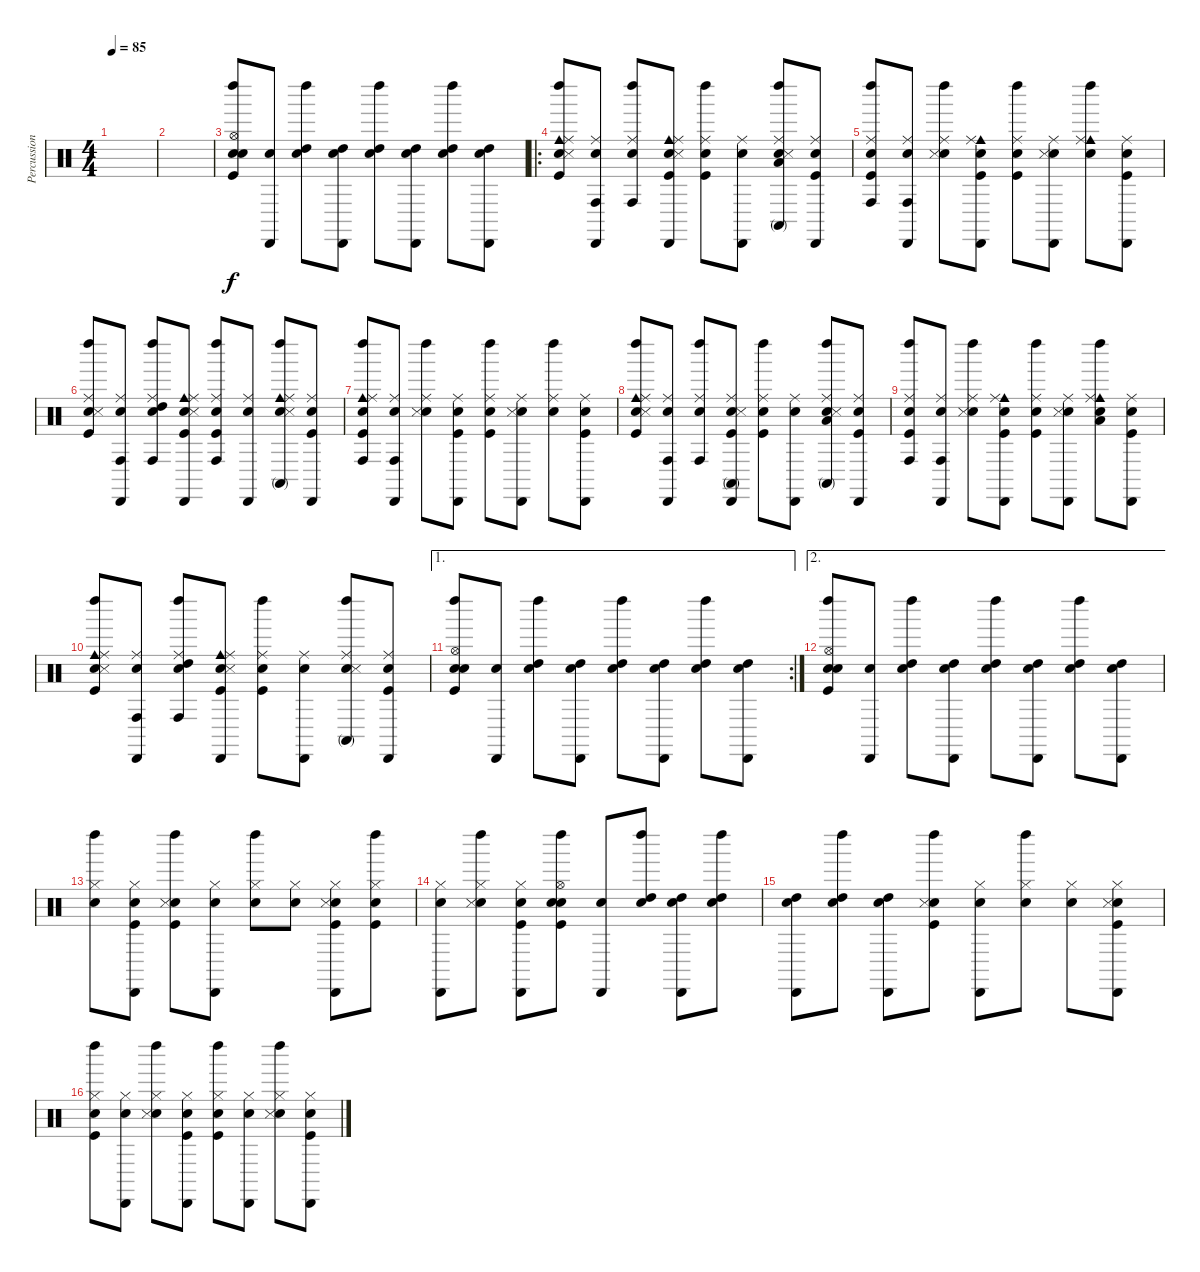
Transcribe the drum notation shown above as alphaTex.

\track ("Percussions" "Percussion") {instrument percussion}
\staff {score}
\articulation defaults
\ts (4 4)
\tempo 85
\clef neutral
\ks c
|
|
("Snare (hit)" "Kick (hit)" "Snare (hit) 2" "Hi-Hat (open)" "Left Maraca (hit)").8 ("Snare (hit)" "Cabasa (hit)").8 ("Snare (hit)" "High Tom (hit)" "Left Maraca (hit)").8 ("Snare (hit)" "High Tom (hit)" "Cabasa (hit)").8 ("Snare (hit)" "High Tom (hit)" "Left Maraca (hit)").8 ("Snare (hit)" "High Tom (hit)" "Cabasa (hit)").8 ("Snare (hit)" "High Tom (hit)" "Left Maraca (hit)").8 ("Snare (hit)" "High Tom (hit)" "Cabasa (hit)").8 |
\ro
("Snare (hit)" "Kick (hit)" "Snare (side stick) 3" "Cowbell medium (hit)" "Ride (middle)" "Left Maraca (hit)").8 ("Snare (hit)" "Ride (middle)" "Conga high (hit)" "Cabasa (hit)").8 ("Snare (hit)" "Ride (middle)" "Conga high (hit)" "Left Maraca (hit)").8 ("Snare (hit)" "Kick (hit)" "Snare (side stick) 3" "Cowbell medium (hit)" "Ride (middle)" "Cabasa (hit)").8 ("Snare (hit)" "Kick (hit)" "Ride (middle)" "Left Maraca (hit)").8 ("Snare (hit)" "Ride (middle)" "Cabasa (hit)").8 ("Snare (hit)" "Snare (side stick) 3" "Ride (middle)" "Low Tom (hit)" "Conga high (mute)" "Left Maraca (hit)").8 ("Snare (hit)" "Kick (hit)" "Ride (middle)" "Cabasa (hit)").8 |
("Snare (hit)" "Kick (hit)" "Ride (middle)" "Conga high (hit)" "Left Maraca (hit)").8 ("Snare (hit)" "Ride (middle)" "Conga high (hit)" "Cabasa (hit)").8 ("Snare (hit)" "Snare (side stick) 3" "Ride (middle)" "Left Maraca (hit)").8 ("Snare (hit)" "Kick (hit)" "Cowbell medium (hit)" "Ride (middle)" "Cabasa (hit)").8 ("Snare (hit)" "Kick (hit)" "Ride (middle)" "Left Maraca (hit)").8 ("Snare (hit)" "Snare (side stick) 3" "Ride (middle)" "Cabasa (hit)").8 ("Snare (hit)" "Cowbell medium (hit)" "Ride (middle)" "Left Maraca (hit)").8 ("Snare (hit)" "Kick (hit)" "Ride (middle)" "Cabasa (hit)").8 |
("Snare (hit)" "Kick (hit)" "Snare (side stick) 3" "Ride (middle)" "Left Maraca (hit)").8 ("Snare (hit)" "Ride (middle)" "Conga high (hit)" "Cabasa (hit)").8 ("Snare (hit)" "Ride (middle)" "High Tom (hit)" "Conga high (hit)" "Left Maraca (hit)").8 ("Snare (hit)" "Kick (hit)" "Snare (side stick) 3" "Cowbell medium (hit)" "Ride (middle)" "Cabasa (hit)").8 ("Snare (hit)" "Kick (hit)" "Ride (middle)" "Conga high (hit)" "Left Maraca (hit)").8 ("Snare (hit)" "Ride (middle)" "Cabasa (hit)").8 ("Snare (hit)" "Snare (side stick) 3" "Cowbell medium (hit)" "Ride (middle)" "Conga high (mute)" "Left Maraca (hit)").8 ("Snare (hit)" "Kick (hit)" "Ride (middle)" "Cabasa (hit)").8 |
("Snare (hit)" "Kick (hit)" "Cowbell medium (hit)" "Ride (middle)" "Conga high (hit)" "Left Maraca (hit)").8 ("Snare (hit)" "Ride (middle)" "Conga high (hit)" "Cabasa (hit)").8 ("Snare (hit)" "Snare (side stick) 3" "Ride (middle)" "Left Maraca (hit)").8 ("Snare (hit)" "Kick (hit)" "Ride (middle)" "Cabasa (hit)").8 ("Snare (hit)" "Kick (hit)" "Ride (middle)" "Left Maraca (hit)").8 ("Snare (hit)" "Snare (side stick) 3" "Ride (middle)" "Cabasa (hit)").8 ("Snare (hit)" "Ride (middle)" "Left Maraca (hit)").8 ("Snare (hit)" "Kick (hit)" "Ride (middle)" "Cabasa (hit)").8 |
("Snare (hit)" "Kick (hit)" "Snare (side stick) 3" "Cowbell medium (hit)" "Ride (middle)" "Left Maraca (hit)").8 ("Snare (hit)" "Ride (middle)" "Conga high (hit)" "Cabasa (hit)").8 ("Snare (hit)" "Ride (middle)" "Conga high (hit)" "Left Maraca (hit)").8 ("Snare (hit)" "Kick (hit)" "Snare (side stick) 3" "Ride (middle)" "Conga high (mute)" "Cabasa (hit)").8 ("Snare (hit)" "Kick (hit)" "Ride (middle)" "Left Maraca (hit)").8 ("Snare (hit)" "Ride (middle)" "Cabasa (hit)").8 ("Snare (hit)" "Snare (side stick) 3" "Ride (middle)" "Low Tom (hit)" "Conga high (mute)" "Left Maraca (hit)").8 ("Snare (hit)" "Kick (hit)" "Ride (middle)" "Cabasa (hit)").8 |
("Snare (hit)" "Kick (hit)" "Ride (middle)" "Conga high (hit)" "Left Maraca (hit)").8 ("Snare (hit)" "Ride (middle)" "Conga high (hit)" "Cabasa (hit)").8 ("Snare (hit)" "Snare (side stick) 3" "Ride (middle)" "Left Maraca (hit)").8 ("Snare (hit)" "Kick (hit)" "Cowbell medium (hit)" "Ride (middle)" "Cabasa (hit)").8 ("Snare (hit)" "Kick (hit)" "Ride (middle)" "Left Maraca (hit)").8 ("Snare (hit)" "Snare (side stick) 3" "Ride (middle)" "Cabasa (hit)").8 ("Snare (hit)" "Cowbell medium (hit)" "Ride (middle)" "Low Tom (hit)" "Left Maraca (hit)").8 ("Snare (hit)" "Kick (hit)" "Ride (middle)" "Cabasa (hit)").8 |
("Snare (hit)" "Kick (hit)" "Snare (side stick) 3" "Cowbell medium (hit)" "Ride (middle)" "Left Maraca (hit)").8 ("Snare (hit)" "Ride (middle)" "Conga high (hit)" "Cabasa (hit)").8 ("Snare (hit)" "Ride (middle)" "High Tom (hit)" "Conga high (hit)" "Left Maraca (hit)").8 ("Snare (hit)" "Kick (hit)" "Snare (side stick) 3" "Cowbell medium (hit)" "Ride (middle)" "Cabasa (hit)").8 ("Snare (hit)" "Kick (hit)" "Ride (middle)" "Left Maraca (hit)").8 ("Snare (hit)" "Ride (middle)" "Cabasa (hit)").8 ("Snare (hit)" "Snare (side stick) 3" "Ride (middle)" "Conga high (mute)" "Left Maraca (hit)").8 ("Snare (hit)" "Kick (hit)" "Ride (middle)" "Cabasa (hit)").8 |
\ae 1
\rc 2
("Snare (hit)" "Kick (hit)" "Snare (hit) 2" "Hi-Hat (open)" "Left Maraca (hit)").8 ("Snare (hit)" "Cabasa (hit)").8 ("Snare (hit)" "High Tom (hit)" "Left Maraca (hit)").8 ("Snare (hit)" "High Tom (hit)" "Cabasa (hit)").8 ("Snare (hit)" "High Tom (hit)" "Left Maraca (hit)").8 ("Snare (hit)" "High Tom (hit)" "Cabasa (hit)").8 ("Snare (hit)" "High Tom (hit)" "Left Maraca (hit)").8 ("Snare (hit)" "High Tom (hit)" "Cabasa (hit)").8 |
\ae 2
("Snare (hit)" "Kick (hit)" "Snare (hit) 2" "Hi-Hat (open)" "Left Maraca (hit)").8 ("Snare (hit)" "Cabasa (hit)").8 ("Snare (hit)" "High Tom (hit)" "Left Maraca (hit)").8 ("Snare (hit)" "High Tom (hit)" "Cabasa (hit)").8 ("Snare (hit)" "High Tom (hit)" "Left Maraca (hit)").8 ("Snare (hit)" "High Tom (hit)" "Cabasa (hit)").8 ("Snare (hit)" "High Tom (hit)" "Left Maraca (hit)").8 ("Snare (hit)" "High Tom (hit)" "Cabasa (hit)").8 |
("Snare (hit)" "Hi-Hat (closed)" "Left Maraca (hit)").8 ("Snare (hit)" "Kick (hit)" "Hi-Hat (closed)" "Cabasa (hit)").8 ("Snare (hit)" "Kick (hit)" "Snare (side stick) 3" "Left Maraca (hit)").8 ("Snare (hit)" "Hi-Hat (closed)" "Cabasa (hit)").8 ("Snare (hit)" "Hi-Hat (closed)" "Left Maraca (hit)").8 ("Snare (hit)" "Hi-Hat (closed)").8 ("Snare (hit)" "Kick (hit)" "Hi-Hat (closed)" "Snare (side stick) 3" "Cabasa (hit)").8 ("Snare (hit)" "Kick (hit)" "Hi-Hat (closed)" "Left Maraca (hit)").8 |
("Snare (hit)" "Hi-Hat (closed)" "Cabasa (hit)").8 ("Snare (hit)" "Hi-Hat (closed)" "Snare (side stick) 3" "Left Maraca (hit)").8 ("Snare (hit)" "Kick (hit)" "Hi-Hat (closed)" "Cabasa (hit)").8 ("Snare (hit)" "Kick (hit)" "Snare (hit) 2" "Hi-Hat (open)" "Left Maraca (hit)").8 ("Snare (hit)" "Cabasa (hit)").8 ("Snare (hit)" "High Tom (hit)" "Left Maraca (hit)").8 ("Snare (hit)" "High Tom (hit)" "Cabasa (hit)").8 ("Snare (hit)" "High Tom (hit)" "Left Maraca (hit)").8 |
("Snare (hit)" "High Tom (hit)" "Cabasa (hit)").8 ("Snare (hit)" "High Tom (hit)" "Left Maraca (hit)").8 ("Snare (hit)" "High Tom (hit)" "Cabasa (hit)").8 ("Snare (hit)" "Kick (hit)" "Snare (side stick) 3" "Left Maraca (hit)").8 ("Snare (hit)" "Hi-Hat (closed)" "Cabasa (hit)").8 ("Snare (hit)" "Hi-Hat (closed)" "Left Maraca (hit)").8 ("Snare (hit)" "Hi-Hat (closed)").8 ("Snare (hit)" "Kick (hit)" "Hi-Hat (closed)" "Snare (side stick) 3" "Cabasa (hit)").8 |
("Snare (hit)" "Kick (hit)" "Hi-Hat (closed)" "Left Maraca (hit)").8 ("Snare (hit)" "Hi-Hat (closed)" "Cabasa (hit)").8 ("Snare (hit)" "Hi-Hat (closed)" "Snare (side stick) 3" "Left Maraca (hit)").8 ("Snare (hit)" "Kick (hit)" "Hi-Hat (closed)" "Cabasa (hit)").8 ("Snare (hit)" "Kick (hit)" "Hi-Hat (closed)" "Left Maraca (hit)").8 ("Snare (hit)" "Hi-Hat (closed)" "Cabasa (hit)").8 ("Snare (hit)" "Hi-Hat (closed)" "Snare (side stick) 3" "Left Maraca (hit)").8 ("Snare (hit)" "Kick (hit)" "Hi-Hat (closed)" "Cabasa (hit)").8
